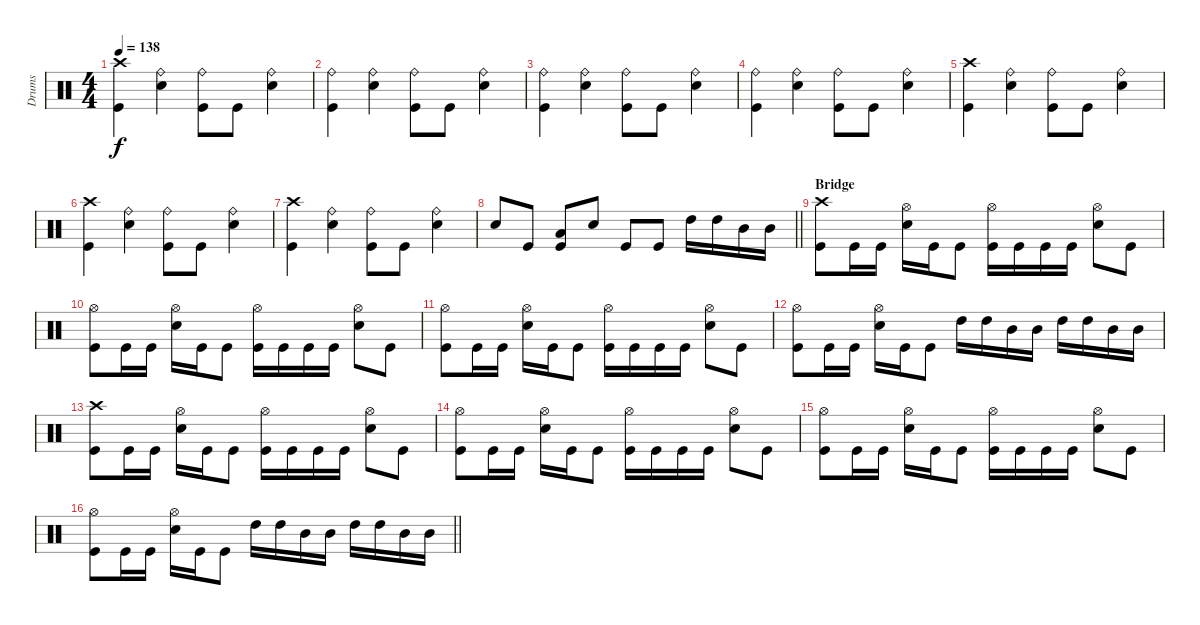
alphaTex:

\track ("Drums" "Drums") {instrument percussion}
\staff {score}
\articulation defaults
\ts (4 4)
\tempo 138
\clef neutral
\ks c
("Crash high (hit)" "Kick (hit)").4{dy f} ("Ride (bell)" "Electric Snare (hit)").4 ("Ride (bell)" "Kick (hit)").8 "Kick (hit)".8 ("Ride (bell)" "Electric Snare (hit)").4 |
("Ride (bell)" "Kick (hit)").4 ("Ride (bell)" "Electric Snare (hit)").4 ("Ride (bell)" "Kick (hit)").8 "Kick (hit)".8 ("Ride (bell)" "Electric Snare (hit)").4 |
("Ride (bell)" "Kick (hit)").4 ("Ride (bell)" "Electric Snare (hit)").4 ("Ride (bell)" "Kick (hit)").8 "Kick (hit)".8 ("Ride (bell)" "Electric Snare (hit)").4 |
("Ride (bell)" "Kick (hit)").4 ("Ride (bell)" "Electric Snare (hit)").4 ("Ride (bell)" "Kick (hit)").8 "Kick (hit)".8 ("Ride (bell)" "Electric Snare (hit)").4 |
("Crash high (hit)" "Kick (hit)").4 ("Ride (bell)" "Electric Snare (hit)").4 ("Ride (bell)" "Kick (hit)").8 "Kick (hit)".8 ("Ride (bell)" "Electric Snare (hit)").4 |
("Crash high (hit)" "Kick (hit)").4 ("Ride (bell)" "Electric Snare (hit)").4 ("Ride (bell)" "Kick (hit)").8 "Kick (hit)".8 ("Ride (bell)" "Electric Snare (hit)").4 |
("Crash high (hit)" "Kick (hit)").4 ("Ride (bell)" "Electric Snare (hit)").4 ("Ride (bell)" "Kick (hit)").8 "Kick (hit)".8 ("Ride (bell)" "Electric Snare (hit)").4 |
\barLineRight lightlight "Electric Snare (hit)".8 "Kick (hit)".8
("Low Floor Tom (hit)" "Kick (hit)").8 "Electric Snare (hit)".8 "Kick (hit)".8 "Kick (hit)".8 "High Tom (hit)".16 "High Tom (hit)".16 "Mid Tom (hit)".16 "Mid Tom (hit)".16 |
\section ("" "Bridge ")
("Crash high (hit)" "Kick (hit)").8 "Kick (hit)".16 "Kick (hit)".16 ("Hi-Hat (open)" "Electric Snare (hit)").16 "Kick (hit)".16 "Kick (hit)".8 ("Hi-Hat (open)" "Kick (hit)").16 "Kick (hit)".16 "Kick (hit)".16 "Kick (hit)".16 ("Hi-Hat (open)" "Electric Snare (hit)").8 "Kick (hit)".8 |
("Hi-Hat (open)" "Kick (hit)").8 "Kick (hit)".16 "Kick (hit)".16 ("Hi-Hat (open)" "Electric Snare (hit)").16 "Kick (hit)".16 "Kick (hit)".8 ("Hi-Hat (open)" "Kick (hit)").16 "Kick (hit)".16 "Kick (hit)".16 "Kick (hit)".16 ("Hi-Hat (open)" "Electric Snare (hit)").8 "Kick (hit)".8 |
("Hi-Hat (open)" "Kick (hit)").8 "Kick (hit)".16 "Kick (hit)".16 ("Hi-Hat (open)" "Electric Snare (hit)").16 "Kick (hit)".16 "Kick (hit)".8 ("Hi-Hat (open)" "Kick (hit)").16 "Kick (hit)".16 "Kick (hit)".16 "Kick (hit)".16 ("Hi-Hat (open)" "Electric Snare (hit)").8 "Kick (hit)".8 |
("Hi-Hat (open)" "Kick (hit)").8 "Kick (hit)".16 "Kick (hit)".16 ("Hi-Hat (open)" "Electric Snare (hit)").16 "Kick (hit)".16 "Kick (hit)".8 "High Tom (hit)".16 "High Tom (hit)".16 "Mid Tom (hit)".16 "Mid Tom (hit)".16 "High Tom (hit)".16 "High Tom (hit)".16 "Mid Tom (hit)".16 "Mid Tom (hit)".16 |
("Crash high (hit)" "Kick (hit)").8 "Kick (hit)".16 "Kick (hit)".16 ("Hi-Hat (open)" "Electric Snare (hit)").16 "Kick (hit)".16 "Kick (hit)".8 ("Hi-Hat (open)" "Kick (hit)").16 "Kick (hit)".16 "Kick (hit)".16 "Kick (hit)".16 ("Hi-Hat (open)" "Electric Snare (hit)").8 "Kick (hit)".8 |
("Hi-Hat (open)" "Kick (hit)").8 "Kick (hit)".16 "Kick (hit)".16 ("Hi-Hat (open)" "Electric Snare (hit)").16 "Kick (hit)".16 "Kick (hit)".8 ("Hi-Hat (open)" "Kick (hit)").16 "Kick (hit)".16 "Kick (hit)".16 "Kick (hit)".16 ("Hi-Hat (open)" "Electric Snare (hit)").8 "Kick (hit)".8 |
("Hi-Hat (open)" "Kick (hit)").8 "Kick (hit)".16 "Kick (hit)".16 ("Hi-Hat (open)" "Electric Snare (hit)").16 "Kick (hit)".16 "Kick (hit)".8 ("Hi-Hat (open)" "Kick (hit)").16 "Kick (hit)".16 "Kick (hit)".16 "Kick (hit)".16 ("Hi-Hat (open)" "Electric Snare (hit)").8 "Kick (hit)".8 |
\barLineRight lightlight
("Hi-Hat (open)" "Kick (hit)").8 "Kick (hit)".16 "Kick (hit)".16 ("Hi-Hat (open)" "Electric Snare (hit)").16 "Kick (hit)".16 "Kick (hit)".8 "High Tom (hit)".16 "High Tom (hit)".16 "Mid Tom (hit)".16 "Mid Tom (hit)".16 "High Tom (hit)".16 "High Tom (hit)".16 "Mid Tom (hit)".16 "Mid Tom (hit)".16
